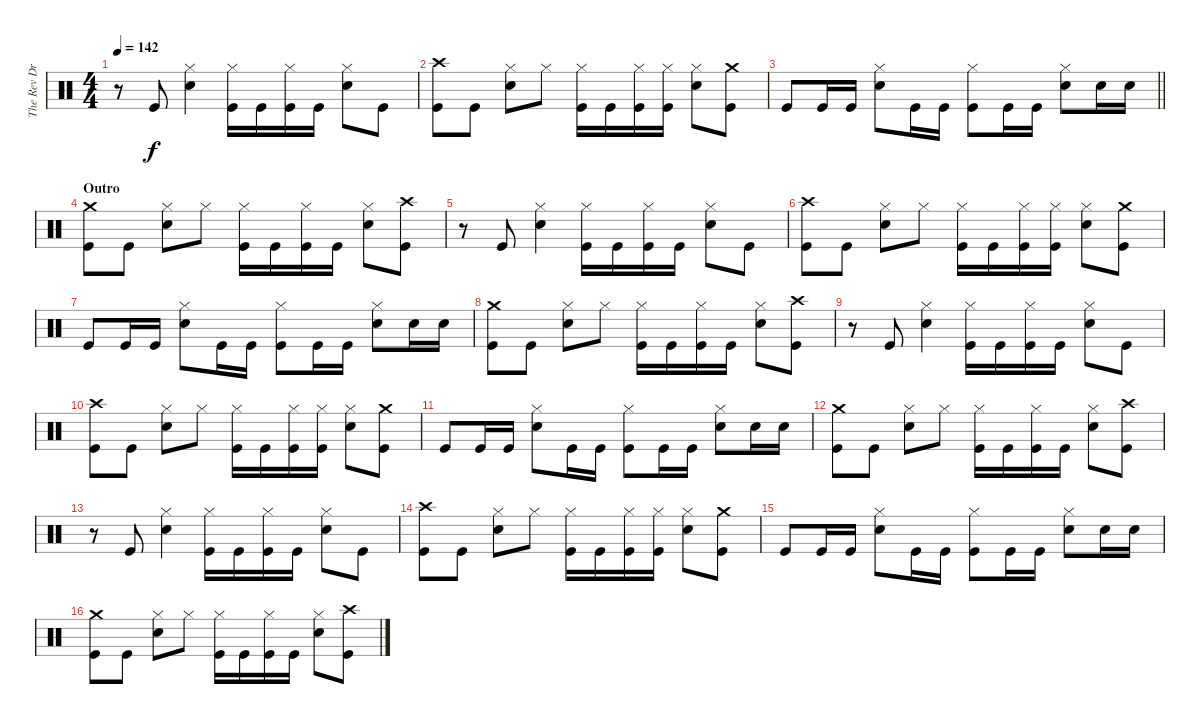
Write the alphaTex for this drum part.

\track ("The Rev Drums" "The Rev Dr") {instrument percussion}
\staff {score}
\articulation defaults
\ts (4 4)
\tempo 142
\clef neutral
\ks c
r.8{dy f} "Kick (hit)".8 ("Hi-Hat (closed)" "Electric Snare (hit)").4 ("Hi-Hat (closed)" "Kick (hit)").16 "Kick (hit)".16 ("Hi-Hat (closed)" "Kick (hit)").16 "Kick (hit)".16 ("Hi-Hat (closed)" "Electric Snare (hit)").8 "Kick (hit)".8 |
("Crash high (hit)" "Kick (hit)").8 "Kick (hit)".8 ("Hi-Hat (closed)" "Electric Snare (hit)").8 "Hi-Hat (closed)".8 ("Hi-Hat (closed)" "Kick (hit)").16 "Kick (hit)".16 ("Hi-Hat (closed)" "Kick (hit)").16 ("Hi-Hat (closed)" "Kick (hit)").16 ("Hi-Hat (closed)" "Electric Snare (hit)").8 ("Crash medium (hit)" "Kick (hit)").8 |
\barLineRight lightlight "Kick (hit)".8 "Kick (hit)".16 "Kick (hit)".16
("Hi-Hat (closed)" "Electric Snare (hit)").8 "Kick (hit)".16 "Kick (hit)".16 ("Hi-Hat (closed)" "Kick (hit)").8 "Kick (hit)".16 "Kick (hit)".16 ("Hi-Hat (closed)" "Electric Snare (hit)").8 "Electric Snare (hit)".16 "Electric Snare (hit)".16 |
\section ("" "Outro")
("Crash medium (hit)" "Kick (hit)").8 "Kick (hit)".8 ("Hi-Hat (closed)" "Electric Snare (hit)").8 "Hi-Hat (closed)".8 ("Hi-Hat (closed)" "Kick (hit)").16 "Kick (hit)".16 ("Hi-Hat (closed)" "Kick (hit)").16 "Kick (hit)".16 ("Hi-Hat (closed)" "Electric Snare (hit)").8 ("Crash high (hit)" "Kick (hit)").8 |
r.8 "Kick (hit)".8 ("Hi-Hat (closed)" "Electric Snare (hit)").4 ("Hi-Hat (closed)" "Kick (hit)").16 "Kick (hit)".16 ("Hi-Hat (closed)" "Kick (hit)").16 "Kick (hit)".16 ("Hi-Hat (closed)" "Electric Snare (hit)").8 "Kick (hit)".8 |
("Crash high (hit)" "Kick (hit)").8 "Kick (hit)".8 ("Hi-Hat (closed)" "Electric Snare (hit)").8 "Hi-Hat (closed)".8 ("Hi-Hat (closed)" "Kick (hit)").16 "Kick (hit)".16 ("Hi-Hat (closed)" "Kick (hit)").16 ("Hi-Hat (closed)" "Kick (hit)").16 ("Hi-Hat (closed)" "Electric Snare (hit)").8 ("Crash medium (hit)" "Kick (hit)").8 |
"Kick (hit)".8 "Kick (hit)".16 "Kick (hit)".16 ("Hi-Hat (closed)" "Electric Snare (hit)").8 "Kick (hit)".16 "Kick (hit)".16 ("Hi-Hat (closed)" "Kick (hit)").8 "Kick (hit)".16 "Kick (hit)".16 ("Hi-Hat (closed)" "Electric Snare (hit)").8 "Electric Snare (hit)".16 "Electric Snare (hit)".16 |
("Crash medium (hit)" "Kick (hit)").8 "Kick (hit)".8 ("Hi-Hat (closed)" "Electric Snare (hit)").8 "Hi-Hat (closed)".8 ("Hi-Hat (closed)" "Kick (hit)").16 "Kick (hit)".16 ("Hi-Hat (closed)" "Kick (hit)").16 "Kick (hit)".16 ("Hi-Hat (closed)" "Electric Snare (hit)").8 ("Crash high (hit)" "Kick (hit)").8 |
r.8 "Kick (hit)".8 ("Hi-Hat (closed)" "Electric Snare (hit)").4 ("Hi-Hat (closed)" "Kick (hit)").16 "Kick (hit)".16 ("Hi-Hat (closed)" "Kick (hit)").16 "Kick (hit)".16 ("Hi-Hat (closed)" "Electric Snare (hit)").8 "Kick (hit)".8 |
("Crash high (hit)" "Kick (hit)").8 "Kick (hit)".8 ("Hi-Hat (closed)" "Electric Snare (hit)").8 "Hi-Hat (closed)".8 ("Hi-Hat (closed)" "Kick (hit)").16 "Kick (hit)".16 ("Hi-Hat (closed)" "Kick (hit)").16 ("Hi-Hat (closed)" "Kick (hit)").16 ("Hi-Hat (closed)" "Electric Snare (hit)").8 ("Crash medium (hit)" "Kick (hit)").8 |
"Kick (hit)".8 "Kick (hit)".16 "Kick (hit)".16 ("Hi-Hat (closed)" "Electric Snare (hit)").8 "Kick (hit)".16 "Kick (hit)".16 ("Hi-Hat (closed)" "Kick (hit)").8 "Kick (hit)".16 "Kick (hit)".16 ("Hi-Hat (closed)" "Electric Snare (hit)").8 "Electric Snare (hit)".16 "Electric Snare (hit)".16 |
("Crash medium (hit)" "Kick (hit)").8 "Kick (hit)".8 ("Hi-Hat (closed)" "Electric Snare (hit)").8 "Hi-Hat (closed)".8 ("Hi-Hat (closed)" "Kick (hit)").16 "Kick (hit)".16 ("Hi-Hat (closed)" "Kick (hit)").16 "Kick (hit)".16 ("Hi-Hat (closed)" "Electric Snare (hit)").8 ("Crash high (hit)" "Kick (hit)").8 |
r.8 "Kick (hit)".8 ("Hi-Hat (closed)" "Electric Snare (hit)").4 ("Hi-Hat (closed)" "Kick (hit)").16 "Kick (hit)".16 ("Hi-Hat (closed)" "Kick (hit)").16 "Kick (hit)".16 ("Hi-Hat (closed)" "Electric Snare (hit)").8 "Kick (hit)".8 |
("Crash high (hit)" "Kick (hit)").8 "Kick (hit)".8 ("Hi-Hat (closed)" "Electric Snare (hit)").8 "Hi-Hat (closed)".8 ("Hi-Hat (closed)" "Kick (hit)").16 "Kick (hit)".16 ("Hi-Hat (closed)" "Kick (hit)").16 ("Hi-Hat (closed)" "Kick (hit)").16 ("Hi-Hat (closed)" "Electric Snare (hit)").8 ("Crash medium (hit)" "Kick (hit)").8 |
"Kick (hit)".8 "Kick (hit)".16 "Kick (hit)".16 ("Hi-Hat (closed)" "Electric Snare (hit)").8 "Kick (hit)".16 "Kick (hit)".16 ("Hi-Hat (closed)" "Kick (hit)").8 "Kick (hit)".16 "Kick (hit)".16 ("Hi-Hat (closed)" "Electric Snare (hit)").8 "Electric Snare (hit)".16 "Electric Snare (hit)".16 |
("Crash medium (hit)" "Kick (hit)").8 "Kick (hit)".8 ("Hi-Hat (closed)" "Electric Snare (hit)").8 "Hi-Hat (closed)".8 ("Hi-Hat (closed)" "Kick (hit)").16 "Kick (hit)".16 ("Hi-Hat (closed)" "Kick (hit)").16 "Kick (hit)".16 ("Hi-Hat (closed)" "Electric Snare (hit)").8 ("Crash high (hit)" "Kick (hit)").8
